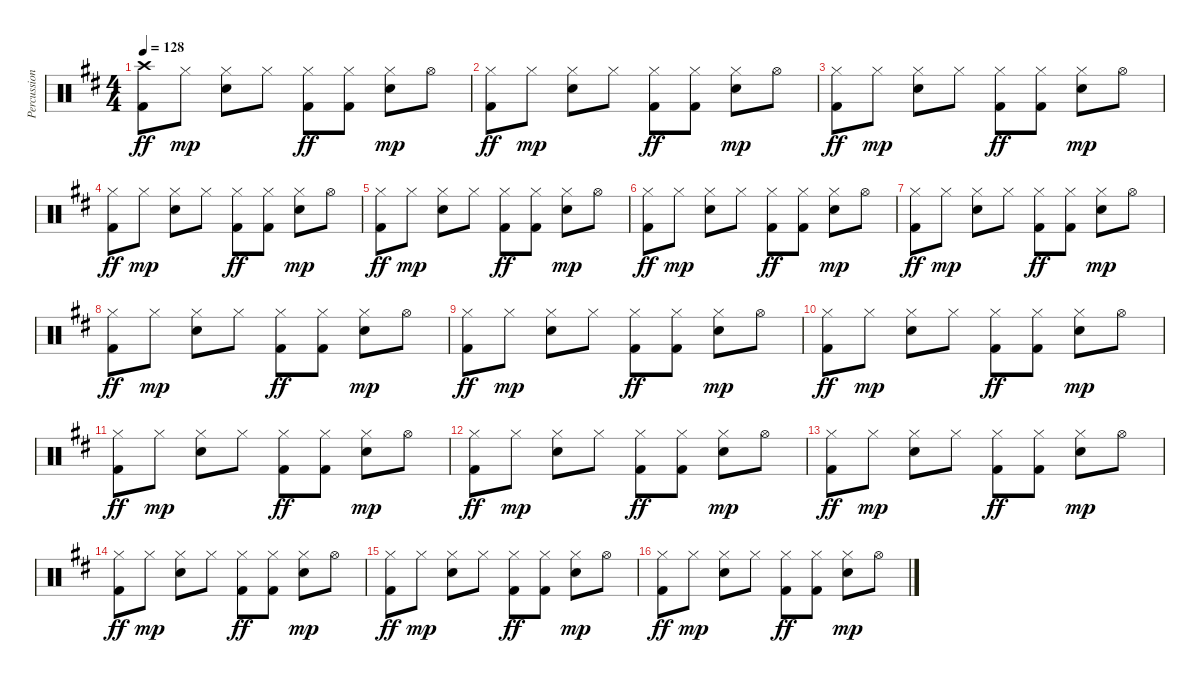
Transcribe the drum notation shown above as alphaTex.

\track ("Percussion" "Percussion") {instrument percussion}
\staff {score}
\articulation defaults
\ts (4 4)
\tempo 128
\clef neutral
\ks d
("Crash high (hit)" "Kick (hit) 2").8{dy ff} "Hi-Hat (closed)".8{dy mp} ("Hi-Hat (closed)" "Electric Snare (hit)").8 "Hi-Hat (closed)".8 ("Hi-Hat (closed)" "Kick (hit) 2").8{dy ff} ("Hi-Hat (closed)" "Kick (hit) 2").8 ("Hi-Hat (closed)" "Electric Snare (hit)").8{dy mp} "Hi-Hat (open)".8 |
("Hi-Hat (closed)" "Kick (hit) 2").8{dy ff} "Hi-Hat (closed)".8{dy mp} ("Hi-Hat (closed)" "Electric Snare (hit)").8 "Hi-Hat (closed)".8 ("Hi-Hat (closed)" "Kick (hit) 2").8{dy ff} ("Hi-Hat (closed)" "Kick (hit) 2").8 ("Hi-Hat (closed)" "Electric Snare (hit)").8{dy mp} "Hi-Hat (open)".8 |
("Hi-Hat (closed)" "Kick (hit) 2").8{dy ff} "Hi-Hat (closed)".8{dy mp} ("Hi-Hat (closed)" "Electric Snare (hit)").8 "Hi-Hat (closed)".8 ("Hi-Hat (closed)" "Kick (hit) 2").8{dy ff} ("Hi-Hat (closed)" "Kick (hit) 2").8 ("Hi-Hat (closed)" "Electric Snare (hit)").8{dy mp} "Hi-Hat (open)".8 |
("Hi-Hat (closed)" "Kick (hit) 2").8{dy ff} "Hi-Hat (closed)".8{dy mp} ("Hi-Hat (closed)" "Electric Snare (hit)").8 "Hi-Hat (closed)".8 ("Hi-Hat (closed)" "Kick (hit) 2").8{dy ff} ("Hi-Hat (closed)" "Kick (hit) 2").8 ("Hi-Hat (closed)" "Electric Snare (hit)").8{dy mp} "Hi-Hat (open)".8 |
("Hi-Hat (closed)" "Kick (hit) 2").8{dy ff} "Hi-Hat (closed)".8{dy mp} ("Hi-Hat (closed)" "Electric Snare (hit)").8 "Hi-Hat (closed)".8 ("Hi-Hat (closed)" "Kick (hit) 2").8{dy ff} ("Hi-Hat (closed)" "Kick (hit) 2").8 ("Hi-Hat (closed)" "Electric Snare (hit)").8{dy mp} "Hi-Hat (open)".8 |
("Hi-Hat (closed)" "Kick (hit) 2").8{dy ff} "Hi-Hat (closed)".8{dy mp} ("Hi-Hat (closed)" "Electric Snare (hit)").8 "Hi-Hat (closed)".8 ("Hi-Hat (closed)" "Kick (hit) 2").8{dy ff} ("Hi-Hat (closed)" "Kick (hit) 2").8 ("Hi-Hat (closed)" "Electric Snare (hit)").8{dy mp} "Hi-Hat (open)".8 |
("Hi-Hat (closed)" "Kick (hit) 2").8{dy ff} "Hi-Hat (closed)".8{dy mp} ("Hi-Hat (closed)" "Electric Snare (hit)").8 "Hi-Hat (closed)".8 ("Hi-Hat (closed)" "Kick (hit) 2").8{dy ff} ("Hi-Hat (closed)" "Kick (hit) 2").8 ("Hi-Hat (closed)" "Electric Snare (hit)").8{dy mp} "Hi-Hat (open)".8 |
("Hi-Hat (closed)" "Kick (hit) 2").8{dy ff} "Hi-Hat (closed)".8{dy mp} ("Hi-Hat (closed)" "Electric Snare (hit)").8 "Hi-Hat (closed)".8 ("Hi-Hat (closed)" "Kick (hit) 2").8{dy ff} ("Hi-Hat (closed)" "Kick (hit) 2").8 ("Hi-Hat (closed)" "Electric Snare (hit)").8{dy mp} "Hi-Hat (open)".8 |
("Hi-Hat (closed)" "Kick (hit) 2").8{dy ff} "Hi-Hat (closed)".8{dy mp} ("Hi-Hat (closed)" "Electric Snare (hit)").8 "Hi-Hat (closed)".8 ("Hi-Hat (closed)" "Kick (hit) 2").8{dy ff} ("Hi-Hat (closed)" "Kick (hit) 2").8 ("Hi-Hat (closed)" "Electric Snare (hit)").8{dy mp} "Hi-Hat (open)".8 |
("Hi-Hat (closed)" "Kick (hit) 2").8{dy ff} "Hi-Hat (closed)".8{dy mp} ("Hi-Hat (closed)" "Electric Snare (hit)").8 "Hi-Hat (closed)".8 ("Hi-Hat (closed)" "Kick (hit) 2").8{dy ff} ("Hi-Hat (closed)" "Kick (hit) 2").8 ("Hi-Hat (closed)" "Electric Snare (hit)").8{dy mp} "Hi-Hat (open)".8 |
("Hi-Hat (closed)" "Kick (hit) 2").8{dy ff} "Hi-Hat (closed)".8{dy mp} ("Hi-Hat (closed)" "Electric Snare (hit)").8 "Hi-Hat (closed)".8 ("Hi-Hat (closed)" "Kick (hit) 2").8{dy ff} ("Hi-Hat (closed)" "Kick (hit) 2").8 ("Hi-Hat (closed)" "Electric Snare (hit)").8{dy mp} "Hi-Hat (open)".8 |
("Hi-Hat (closed)" "Kick (hit) 2").8{dy ff} "Hi-Hat (closed)".8{dy mp} ("Hi-Hat (closed)" "Electric Snare (hit)").8 "Hi-Hat (closed)".8 ("Hi-Hat (closed)" "Kick (hit) 2").8{dy ff} ("Hi-Hat (closed)" "Kick (hit) 2").8 ("Hi-Hat (closed)" "Electric Snare (hit)").8{dy mp} "Hi-Hat (open)".8 |
("Hi-Hat (closed)" "Kick (hit) 2").8{dy ff} "Hi-Hat (closed)".8{dy mp} ("Hi-Hat (closed)" "Electric Snare (hit)").8 "Hi-Hat (closed)".8 ("Hi-Hat (closed)" "Kick (hit) 2").8{dy ff} ("Hi-Hat (closed)" "Kick (hit) 2").8 ("Hi-Hat (closed)" "Electric Snare (hit)").8{dy mp} "Hi-Hat (open)".8 |
("Hi-Hat (closed)" "Kick (hit) 2").8{dy ff} "Hi-Hat (closed)".8{dy mp} ("Hi-Hat (closed)" "Electric Snare (hit)").8 "Hi-Hat (closed)".8 ("Hi-Hat (closed)" "Kick (hit) 2").8{dy ff} ("Hi-Hat (closed)" "Kick (hit) 2").8 ("Hi-Hat (closed)" "Electric Snare (hit)").8{dy mp} "Hi-Hat (open)".8 |
("Hi-Hat (closed)" "Kick (hit) 2").8{dy ff} "Hi-Hat (closed)".8{dy mp} ("Hi-Hat (closed)" "Electric Snare (hit)").8 "Hi-Hat (closed)".8 ("Hi-Hat (closed)" "Kick (hit) 2").8{dy ff} ("Hi-Hat (closed)" "Kick (hit) 2").8 ("Hi-Hat (closed)" "Electric Snare (hit)").8{dy mp} "Hi-Hat (open)".8 |
("Hi-Hat (closed)" "Kick (hit) 2").8{dy ff} "Hi-Hat (closed)".8{dy mp} ("Hi-Hat (closed)" "Electric Snare (hit)").8 "Hi-Hat (closed)".8 ("Hi-Hat (closed)" "Kick (hit) 2").8{dy ff} ("Hi-Hat (closed)" "Kick (hit) 2").8 ("Hi-Hat (closed)" "Electric Snare (hit)").8{dy mp} "Hi-Hat (open)".8
